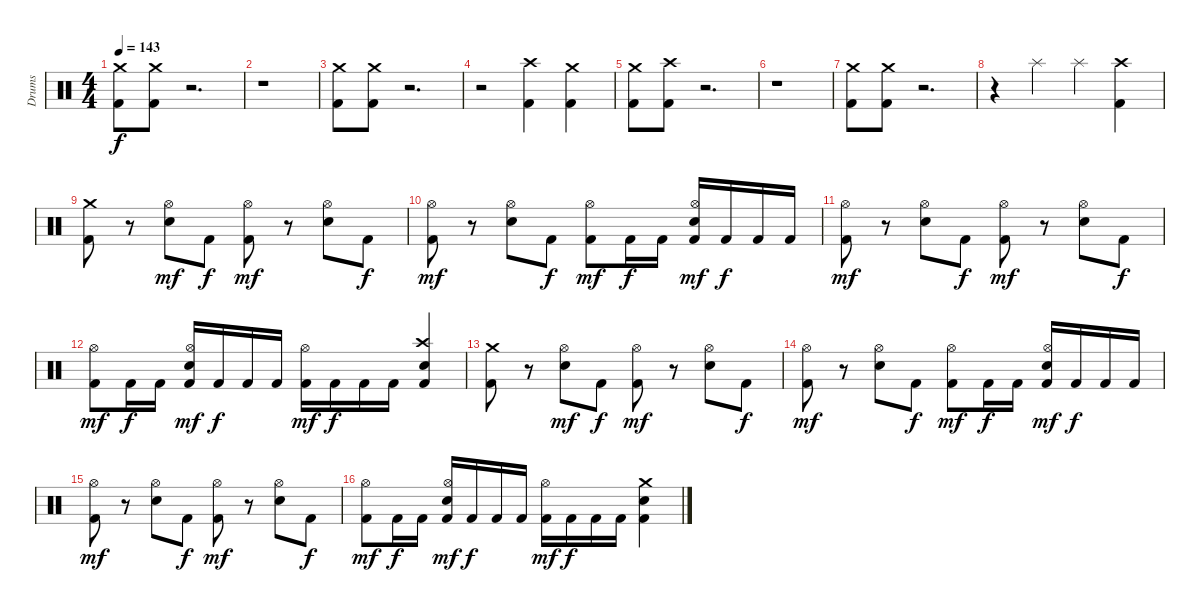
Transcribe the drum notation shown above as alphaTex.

\track ("Drums" "Drums") {instrument percussion}
\staff {score}
\articulation defaults
\ts (4 4)
\tempo 143
\clef neutral
\ks c
("Crash medium (hit)" "Kick (hit) 2").8{dy f} ("Crash medium (hit)" "Kick (hit) 2").8 r.2{d} |
r.1 |
("Crash medium (hit)" "Kick (hit) 2").8 ("Crash medium (hit)" "Kick (hit) 2").8 r.2{d} |
r.2 ("Crash high (hit)" "Kick (hit) 2").4 ("Crash medium (hit)" "Kick (hit) 2").4 |
("Crash medium (hit)" "Kick (hit) 2").8 ("Crash high (hit)" "Kick (hit) 2").8 r.2{d} |
r.1 |
("Crash medium (hit)" "Kick (hit) 2").8 ("Crash medium (hit)" "Kick (hit) 2").8 r.2{d} |
r.4 "Splash (hit)".4 "Splash (hit)".4 ("Crash high (hit)" "Kick (hit) 2").4 |
("Crash medium (hit)" "Kick (hit) 2").8 r.8 ("Hi-Hat (open)" "Electric Snare (hit)").8{dy mf} "Kick (hit) 2".8{dy f} ("Hi-Hat (open)" "Kick (hit) 2").8{dy mf} r.8 ("Hi-Hat (open)" "Electric Snare (hit)").8 "Kick (hit) 2".8{dy f} |
("Hi-Hat (open)" "Kick (hit) 2").8{dy mf} r.8 ("Hi-Hat (open)" "Electric Snare (hit)").8 "Kick (hit) 2".8{dy f} ("Hi-Hat (open)" "Kick (hit) 2").8{dy mf} "Kick (hit) 2".16{dy f} "Kick (hit) 2".16 ("Hi-Hat (open)" "Electric Snare (hit)" "Kick (hit) 2").16{dy mf} "Kick (hit) 2".16{dy f} "Kick (hit) 2".16 "Kick (hit) 2".16 |
("Hi-Hat (open)" "Kick (hit) 2").8{dy mf} r.8 ("Hi-Hat (open)" "Electric Snare (hit)").8 "Kick (hit) 2".8{dy f} ("Hi-Hat (open)" "Kick (hit) 2").8{dy mf} r.8 ("Hi-Hat (open)" "Electric Snare (hit)").8 "Kick (hit) 2".8{dy f} |
("Hi-Hat (open)" "Kick (hit) 2").8{dy mf} "Kick (hit) 2".16{dy f} "Kick (hit) 2".16 ("Hi-Hat (open)" "Electric Snare (hit)" "Kick (hit) 2").16{dy mf} "Kick (hit) 2".16{dy f} "Kick (hit) 2".16 "Kick (hit) 2".16 ("Hi-Hat (open)" "Kick (hit) 2").16{dy mf} "Kick (hit) 2".16{dy f} "Kick (hit) 2".16 "Kick (hit) 2".16 ("Crash high (hit)" "Electric Snare (hit)" "Kick (hit) 2").4 |
("Crash medium (hit)" "Kick (hit) 2").8 r.8 ("Hi-Hat (open)" "Electric Snare (hit)").8{dy mf} "Kick (hit) 2".8{dy f} ("Hi-Hat (open)" "Kick (hit) 2").8{dy mf} r.8 ("Hi-Hat (open)" "Electric Snare (hit)").8 "Kick (hit) 2".8{dy f} |
("Hi-Hat (open)" "Kick (hit) 2").8{dy mf} r.8 ("Hi-Hat (open)" "Electric Snare (hit)").8 "Kick (hit) 2".8{dy f} ("Hi-Hat (open)" "Kick (hit) 2").8{dy mf} "Kick (hit) 2".16{dy f} "Kick (hit) 2".16 ("Hi-Hat (open)" "Electric Snare (hit)" "Kick (hit) 2").16{dy mf} "Kick (hit) 2".16{dy f} "Kick (hit) 2".16 "Kick (hit) 2".16 |
("Hi-Hat (open)" "Kick (hit) 2").8{dy mf} r.8 ("Hi-Hat (open)" "Electric Snare (hit)").8 "Kick (hit) 2".8{dy f} ("Hi-Hat (open)" "Kick (hit) 2").8{dy mf} r.8 ("Hi-Hat (open)" "Electric Snare (hit)").8 "Kick (hit) 2".8{dy f} |
("Hi-Hat (open)" "Kick (hit) 2").8{dy mf} "Kick (hit) 2".16{dy f} "Kick (hit) 2".16 ("Hi-Hat (open)" "Electric Snare (hit)" "Kick (hit) 2").16{dy mf} "Kick (hit) 2".16{dy f} "Kick (hit) 2".16 "Kick (hit) 2".16 ("Hi-Hat (open)" "Kick (hit) 2").16{dy mf} "Kick (hit) 2".16{dy f} "Kick (hit) 2".16 "Kick (hit) 2".16 ("Crash medium (hit)" "Electric Snare (hit)" "Kick (hit) 2").4
